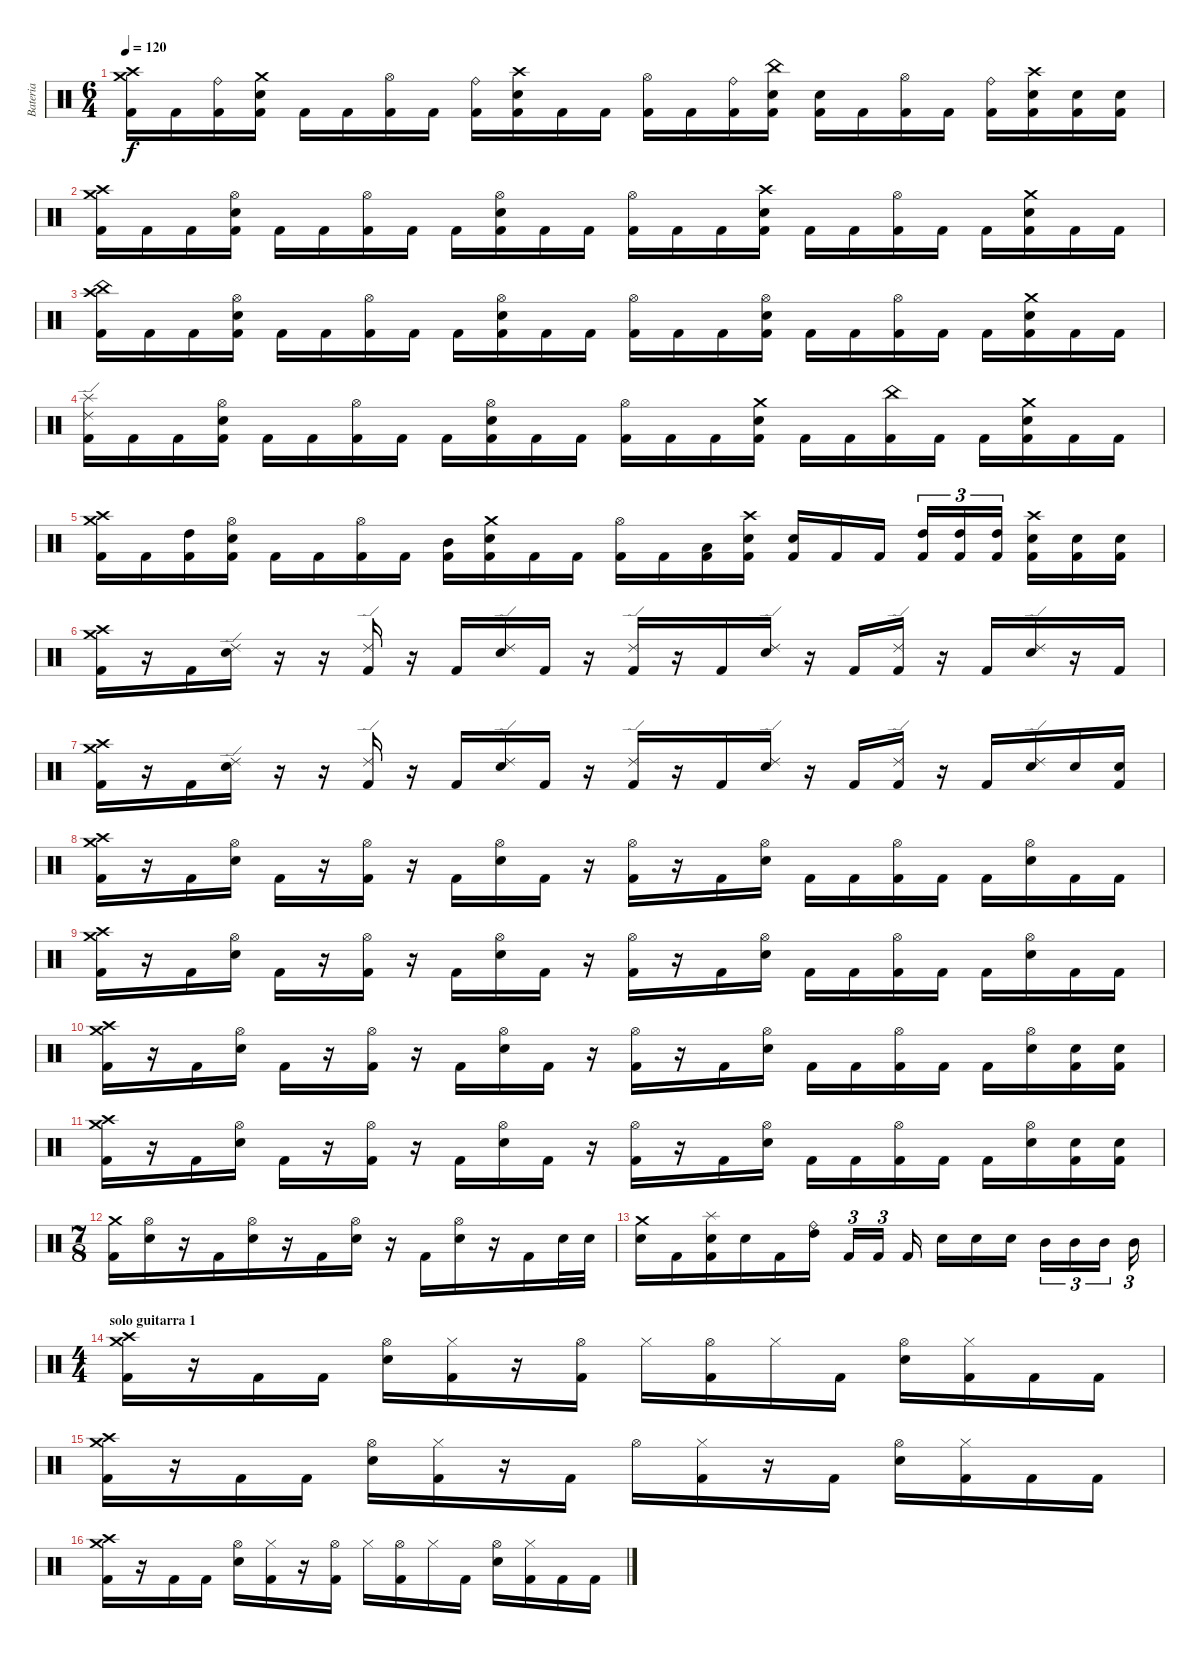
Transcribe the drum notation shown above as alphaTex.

\track ("Bateria" "Bateria") {instrument percussion}
\staff {score}
\articulation defaults
\ts (6 4)
\tempo 120
\clef neutral
\ks c
("Crash medium (hit)" "Crash high (hit)" "Kick (hit) 2").16{dy f} "Kick (hit) 2".16 ("Ride (bell)" "Kick (hit) 2").16 ("Crash medium (hit)" "Electric Snare (hit)" "Kick (hit) 2").16 "Kick (hit) 2".16 "Kick (hit) 2".16 ("Hi-Hat (open)" "Kick (hit) 2").16 "Kick (hit) 2".16 ("Ride (bell)" "Kick (hit) 2").16 ("Crash high (hit)" "Electric Snare (hit)" "Kick (hit) 2").16 "Kick (hit) 2".16 "Kick (hit) 2".16 ("Hi-Hat (open)" "Kick (hit) 2").16 "Kick (hit) 2".16 ("Ride (bell)" "Kick (hit) 2").16 ("China (hit)" "Electric Snare (hit)" "Kick (hit) 2").16 ("Electric Snare (hit)" "Kick (hit) 2").16 "Kick (hit) 2".16 ("Hi-Hat (open)" "Kick (hit) 2").16 "Kick (hit) 2".16 ("Ride (bell)" "Kick (hit) 2").16 ("Crash high (hit)" "Electric Snare (hit)" "Kick (hit) 2").16 ("Electric Snare (hit)" "Kick (hit) 2").16 ("Electric Snare (hit)" "Kick (hit) 2").16 |
("Crash medium (hit)" "Crash high (hit)" "Kick (hit) 2").16 "Kick (hit) 2".16 "Kick (hit) 2".16 ("Hi-Hat (open)" "Electric Snare (hit)" "Kick (hit) 2").16 "Kick (hit) 2".16 "Kick (hit) 2".16 ("Hi-Hat (open)" "Kick (hit) 2").16 "Kick (hit) 2".16 "Kick (hit) 2".16 ("Hi-Hat (open)" "Electric Snare (hit)" "Kick (hit) 2").16 "Kick (hit) 2".16 "Kick (hit) 2".16 ("Hi-Hat (open)" "Kick (hit) 2").16 "Kick (hit) 2".16 "Kick (hit) 2".16 ("Crash high (hit)" "Electric Snare (hit)" "Kick (hit) 2").16 "Kick (hit) 2".16 "Kick (hit) 2".16 ("Hi-Hat (open)" "Kick (hit) 2").16 "Kick (hit) 2".16 "Kick (hit) 2".16 ("Crash medium (hit)" "Electric Snare (hit)" "Kick (hit) 2").16 "Kick (hit) 2".16 "Kick (hit) 2".16 |
("China (hit)" "Crash high (hit)" "Kick (hit) 2").16 "Kick (hit) 2".16 "Kick (hit) 2".16 ("Hi-Hat (open)" "Electric Snare (hit)" "Kick (hit) 2").16 "Kick (hit) 2".16 "Kick (hit) 2".16 ("Hi-Hat (open)" "Kick (hit) 2").16 "Kick (hit) 2".16 "Kick (hit) 2".16 ("Hi-Hat (open)" "Electric Snare (hit)" "Kick (hit) 2").16 "Kick (hit) 2".16 "Kick (hit) 2".16 ("Hi-Hat (open)" "Kick (hit) 2").16 "Kick (hit) 2".16 "Kick (hit) 2".16 ("Hi-Hat (open)" "Electric Snare (hit)" "Kick (hit) 2").16 "Kick (hit) 2".16 "Kick (hit) 2".16 ("Hi-Hat (open)" "Kick (hit) 2").16 "Kick (hit) 2".16 "Kick (hit) 2".16 ("Crash medium (hit)" "Electric Snare (hit)" "Kick (hit) 2").16 "Kick (hit) 2".16 "Kick (hit) 2".16 |
("Ride (edge) 2" "Splash (hit)" "Kick (hit) 2").16 "Kick (hit) 2".16 "Kick (hit) 2".16 ("Hi-Hat (open)" "Electric Snare (hit)" "Kick (hit) 2").16 "Kick (hit) 2".16 "Kick (hit) 2".16 ("Hi-Hat (open)" "Kick (hit) 2").16 "Kick (hit) 2".16 "Kick (hit) 2".16 ("Hi-Hat (open)" "Electric Snare (hit)" "Kick (hit) 2").16 "Kick (hit) 2".16 "Kick (hit) 2".16 ("Hi-Hat (open)" "Kick (hit) 2").16 "Kick (hit) 2".16 "Kick (hit) 2".16 ("Crash medium (hit)" "Electric Snare (hit)" "Kick (hit) 2").16 "Kick (hit) 2".16 "Kick (hit) 2".16 ("China (hit)" "Kick (hit) 2").16 "Kick (hit) 2".16 "Kick (hit) 2".16 ("Crash medium (hit)" "Electric Snare (hit)" "Kick (hit) 2").16 "Kick (hit) 2".16 "Kick (hit) 2".16 |
("Crash medium (hit)" "Crash high (hit)" "Kick (hit) 2").16 "Kick (hit) 2".16 ("High Tom (hit)" "Kick (hit) 2").16 ("Hi-Hat (open)" "Electric Snare (hit)" "Kick (hit) 2").16 "Kick (hit) 2".16 "Kick (hit) 2".16 ("Hi-Hat (open)" "Kick (hit) 2").16 "Kick (hit) 2".16 ("Mid Tom (hit)" "Kick (hit) 2").16 ("Crash medium (hit)" "Electric Snare (hit)" "Kick (hit) 2").16 "Kick (hit) 2".16 "Kick (hit) 2".16 ("Hi-Hat (open)" "Kick (hit) 2").16 "Kick (hit) 2".16 ("Low Tom (hit)" "Kick (hit) 2").16 ("Crash high (hit)" "Electric Snare (hit)" "Kick (hit) 2").16 ("Electric Snare (hit)" "Kick (hit) 2").16 "Kick (hit) 2".16 "Kick (hit) 2".16 ("High Tom (hit)" "Kick (hit) 2").16{tu (3 2)} ("High Tom (hit)" "Kick (hit) 2").16{tu (3 2)} ("High Tom (hit)" "Kick (hit) 2").16{tu (3 2)} ("Crash high (hit)" "Electric Snare (hit)" "Kick (hit) 2").16 ("Electric Snare (hit)" "Kick (hit) 2").16 ("Electric Snare (hit)" "Kick (hit) 2").16 |
("Crash medium (hit)" "Crash high (hit)" "Kick (hit) 2").16 r.16 "Kick (hit) 2".16 ("Ride (edge) 2" "Electric Snare (hit)").16 r.16 r.16 ("Ride (edge) 2" "Kick (hit) 2").16 r.16 "Kick (hit) 2".16 ("Ride (edge) 2" "Electric Snare (hit)").16 "Kick (hit) 2".16 r.16 ("Ride (edge) 2" "Kick (hit) 2").16 r.16 "Kick (hit) 2".16 ("Ride (edge) 2" "Electric Snare (hit)").16 r.16 "Kick (hit) 2".16 ("Ride (edge) 2" "Kick (hit) 2").16 r.16 "Kick (hit) 2".16 ("Ride (edge) 2" "Electric Snare (hit)").16 r.16 "Kick (hit) 2".16 |
("Crash medium (hit)" "Crash high (hit)" "Kick (hit) 2").16 r.16 "Kick (hit) 2".16 ("Ride (edge) 2" "Electric Snare (hit)").16 r.16 r.16 ("Ride (edge) 2" "Kick (hit) 2").16 r.16 "Kick (hit) 2".16 ("Ride (edge) 2" "Electric Snare (hit)").16 "Kick (hit) 2".16 r.16 ("Ride (edge) 2" "Kick (hit) 2").16 r.16 "Kick (hit) 2".16 ("Ride (edge) 2" "Electric Snare (hit)").16 r.16 "Kick (hit) 2".16 ("Ride (edge) 2" "Kick (hit) 2").16 r.16 "Kick (hit) 2".16 ("Ride (edge) 2" "Electric Snare (hit)").16 "Electric Snare (hit)".16 ("Electric Snare (hit)" "Kick (hit) 2").16 |
("Crash medium (hit)" "Crash high (hit)" "Kick (hit) 2").16 r.16 "Kick (hit) 2".16 ("Hi-Hat (open)" "Electric Snare (hit)").16 "Kick (hit) 2".16 r.16 ("Hi-Hat (open)" "Kick (hit) 2").16 r.16 "Kick (hit) 2".16 ("Hi-Hat (open)" "Electric Snare (hit)").16 "Kick (hit) 2".16 r.16 ("Hi-Hat (open)" "Kick (hit) 2").16 r.16 "Kick (hit) 2".16 ("Hi-Hat (open)" "Electric Snare (hit)").16 "Kick (hit) 2".16 "Kick (hit) 2".16 ("Hi-Hat (open)" "Kick (hit) 2").16 "Kick (hit) 2".16 "Kick (hit) 2".16 ("Hi-Hat (open)" "Electric Snare (hit)").16 "Kick (hit) 2".16 "Kick (hit) 2".16 |
("Crash medium (hit)" "Crash high (hit)" "Kick (hit) 2").16 r.16 "Kick (hit) 2".16 ("Hi-Hat (open)" "Electric Snare (hit)").16 "Kick (hit) 2".16 r.16 ("Hi-Hat (open)" "Kick (hit) 2").16 r.16 "Kick (hit) 2".16 ("Hi-Hat (open)" "Electric Snare (hit)").16 "Kick (hit) 2".16 r.16 ("Hi-Hat (open)" "Kick (hit) 2").16 r.16 "Kick (hit) 2".16 ("Hi-Hat (open)" "Electric Snare (hit)").16 "Kick (hit) 2".16 "Kick (hit) 2".16 ("Hi-Hat (open)" "Kick (hit) 2").16 "Kick (hit) 2".16 "Kick (hit) 2".16 ("Hi-Hat (open)" "Electric Snare (hit)").16 "Kick (hit) 2".16 "Kick (hit) 2".16 |
("Crash medium (hit)" "Crash high (hit)" "Kick (hit) 2").16 r.16 "Kick (hit) 2".16 ("Hi-Hat (open)" "Electric Snare (hit)").16 "Kick (hit) 2".16 r.16 ("Hi-Hat (open)" "Kick (hit) 2").16 r.16 "Kick (hit) 2".16 ("Hi-Hat (open)" "Electric Snare (hit)").16 "Kick (hit) 2".16 r.16 ("Hi-Hat (open)" "Kick (hit) 2").16 r.16 "Kick (hit) 2".16 ("Hi-Hat (open)" "Electric Snare (hit)").16 "Kick (hit) 2".16 "Kick (hit) 2".16 ("Hi-Hat (open)" "Kick (hit) 2").16 "Kick (hit) 2".16 "Kick (hit) 2".16 ("Hi-Hat (open)" "Electric Snare (hit)").16 ("Electric Snare (hit)" "Kick (hit) 2").16 ("Electric Snare (hit)" "Kick (hit) 2").16 |
("Crash medium (hit)" "Crash high (hit)" "Kick (hit) 2").16 r.16 "Kick (hit) 2".16 ("Hi-Hat (open)" "Electric Snare (hit)").16 "Kick (hit) 2".16 r.16 ("Hi-Hat (open)" "Kick (hit) 2").16 r.16 "Kick (hit) 2".16 ("Hi-Hat (open)" "Electric Snare (hit)").16 "Kick (hit) 2".16 r.16 ("Hi-Hat (open)" "Kick (hit) 2").16 r.16 "Kick (hit) 2".16 ("Hi-Hat (open)" "Electric Snare (hit)").16 "Kick (hit) 2".16 "Kick (hit) 2".16 ("Hi-Hat (open)" "Kick (hit) 2").16 "Kick (hit) 2".16 "Kick (hit) 2".16 ("Hi-Hat (open)" "Electric Snare (hit)").16 ("Electric Snare (hit)" "Kick (hit) 2").16 ("Electric Snare (hit)" "Kick (hit) 2").16 |
\ts (7 8)
("Crash medium (hit)" "Kick (hit) 2").16 ("Hi-Hat (open)" "Electric Snare (hit)").16 r.16 "Kick (hit) 2".16 ("Hi-Hat (open)" "Electric Snare (hit)").16 r.16 "Kick (hit) 2".16 ("Hi-Hat (open)" "Electric Snare (hit)").16 r.16 "Kick (hit) 2".16 ("Hi-Hat (open)" "Electric Snare (hit)").16 r.16 "Kick (hit) 2".16 "Electric Snare (hit)".32 "Electric Snare (hit)".32 |
("Crash medium (hit)" "Electric Snare (hit)").16 "Kick (hit) 2".16 ("Splash (hit)" "Electric Snare (hit)" "Kick (hit) 2").16 "Electric Snare (hit)".16 "Kick (hit) 2".16 ("Ride (bell)" "High Tom (hit)").16 "Kick (hit) 2".16{tu (3 2)} "Kick (hit) 2".16{tu (3 2)} "Kick (hit) 2".16 "Electric Snare (hit)".16 "Electric Snare (hit)".16 "Electric Snare (hit)".16 "Mid Tom (hit)".16{tu (3 2)} "Mid Tom (hit)".16{tu (3 2)} "Mid Tom (hit)".16{tu (3 2)} "Mid Tom (hit)".16{tu (3 2)} |
\ts (4 4)
\section ("" "solo guitarra 1")
("Crash medium (hit)" "Crash high (hit)" "Kick (hit) 2").16 r.16 "Kick (hit) 2".16 "Kick (hit) 2".16 ("Hi-Hat (open)" "Electric Snare (hit)").16 ("Hi-Hat (closed)" "Kick (hit) 2").16 r.16 ("Hi-Hat (open)" "Kick (hit) 2").16 "Hi-Hat (closed)".16 ("Hi-Hat (open)" "Kick (hit) 2").16 "Hi-Hat (closed)".16 "Kick (hit) 2".16 ("Hi-Hat (open)" "Electric Snare (hit)").16 ("Hi-Hat (closed)" "Kick (hit) 2").16 "Kick (hit) 2".16 "Kick (hit) 2".16 |
("Crash medium (hit)" "Crash high (hit)" "Kick (hit) 2").16 r.16 "Kick (hit) 2".16 "Kick (hit) 2".16 ("Hi-Hat (open)" "Electric Snare (hit)").16 ("Hi-Hat (closed)" "Kick (hit) 2").16 r.16 "Kick (hit) 2".16 "Hi-Hat (open)".16 ("Hi-Hat (closed)" "Kick (hit) 2").16 r.16 "Kick (hit) 2".16 ("Hi-Hat (open)" "Electric Snare (hit)").16 ("Hi-Hat (closed)" "Kick (hit) 2").16 "Kick (hit) 2".16 "Kick (hit) 2".16 |
("Crash medium (hit)" "Crash high (hit)" "Kick (hit) 2").16 r.16 "Kick (hit) 2".16 "Kick (hit) 2".16 ("Hi-Hat (open)" "Electric Snare (hit)").16 ("Hi-Hat (closed)" "Kick (hit) 2").16 r.16 ("Hi-Hat (open)" "Kick (hit) 2").16 "Hi-Hat (closed)".16 ("Hi-Hat (open)" "Kick (hit) 2").16 "Hi-Hat (closed)".16 "Kick (hit) 2".16 ("Hi-Hat (open)" "Electric Snare (hit)").16 ("Hi-Hat (closed)" "Kick (hit) 2").16 "Kick (hit) 2".16 "Kick (hit) 2".16
